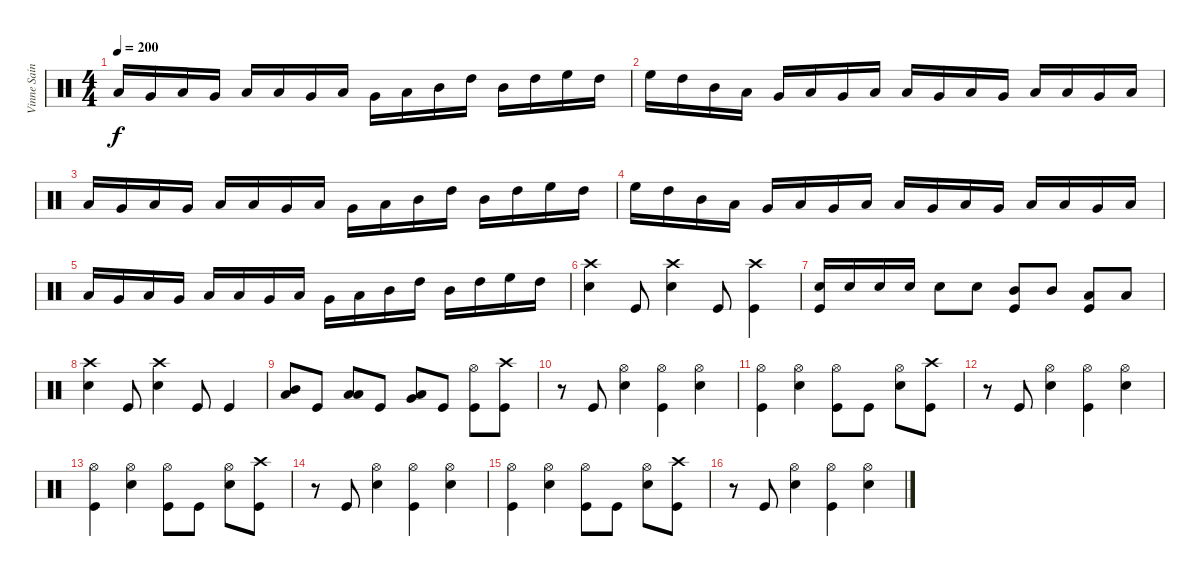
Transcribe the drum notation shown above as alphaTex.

\track ("Vinne Saint James" "Vinne Sain") {instrument percussion}
\staff {score}
\articulation defaults
\ts (4 4)
\tempo 200
\clef neutral
\ks c "Low Tom (hit)".16{dy f} "Very Low Tom (hit)".16 "Low Floor Tom (hit)".16 "Very Low Tom (hit)".16 "Low Floor Tom (hit)".16 "Low Tom (hit)".16 "Very Low Tom (hit)".16 "Low Floor Tom (hit)".16 "Very Low Tom (hit)".16 "Low Tom (hit)".16 "Mid Tom (hit)".16 "High Tom (hit)".16 "Mid Tom (hit)".16 "High Tom (hit)".16 "High Floor Tom (hit)".16 "High Tom (hit)".16
|
"High Floor Tom (hit)".16 "High Tom (hit)".16 "Mid Tom (hit)".16 "Low Tom (hit)".16 "Very Low Tom (hit)".16 "Low Floor Tom (hit)".16 "Very Low Tom (hit)".16 "Low Floor Tom (hit)".16 "Low Tom (hit)".16 "Very Low Tom (hit)".16 "Low Floor Tom (hit)".16 "Very Low Tom (hit)".16 "Low Floor Tom (hit)".16 "Low Tom (hit)".16 "Very Low Tom (hit)".16 "Low Floor Tom (hit)".16 |
"Low Tom (hit)".16 "Very Low Tom (hit)".16 "Low Floor Tom (hit)".16 "Very Low Tom (hit)".16 "Low Floor Tom (hit)".16 "Low Tom (hit)".16 "Very Low Tom (hit)".16 "Low Floor Tom (hit)".16 "Very Low Tom (hit)".16 "Low Tom (hit)".16 "Mid Tom (hit)".16 "High Tom (hit)".16 "Mid Tom (hit)".16 "High Tom (hit)".16 "High Floor Tom (hit)".16 "High Tom (hit)".16 |
"High Floor Tom (hit)".16 "High Tom (hit)".16 "Mid Tom (hit)".16 "Low Tom (hit)".16 "Very Low Tom (hit)".16 "Low Floor Tom (hit)".16 "Very Low Tom (hit)".16 "Low Floor Tom (hit)".16 "Low Tom (hit)".16 "Very Low Tom (hit)".16 "Low Floor Tom (hit)".16 "Very Low Tom (hit)".16 "Low Floor Tom (hit)".16 "Low Tom (hit)".16 "Very Low Tom (hit)".16 "Low Floor Tom (hit)".16 |
"Low Tom (hit)".16 "Very Low Tom (hit)".16 "Low Floor Tom (hit)".16 "Very Low Tom (hit)".16 "Low Floor Tom (hit)".16 "Low Tom (hit)".16 "Very Low Tom (hit)".16 "Low Floor Tom (hit)".16 "Very Low Tom (hit)".16 "Low Tom (hit)".16 "Mid Tom (hit)".16 "High Tom (hit)".16 "Mid Tom (hit)".16 "High Tom (hit)".16 "High Floor Tom (hit)".16 "High Tom (hit)".16 |
("Crash high (hit)" "Electric Snare (hit)").4 "Kick (hit)".8 ("Crash high (hit)" "Electric Snare (hit)").4 "Kick (hit)".8 ("Crash high (hit)" "Kick (hit)").4 |
("Electric Snare (hit)" "Kick (hit)").16 "Electric Snare (hit)".16 "Electric Snare (hit)".16 "Electric Snare (hit)".16 "Electric Snare (hit)".8 "Electric Snare (hit)".8 ("Mid Tom (hit)" "Kick (hit)").8 "Mid Tom (hit)".8 ("Low Tom (hit)" "Kick (hit)").8 "Low Tom (hit)".8 |
("Crash high (hit)" "Electric Snare (hit)").4 "Kick (hit)".8 ("Crash high (hit)" "Electric Snare (hit)").4 "Kick (hit)".8 "Kick (hit)".4 |
("Mid Tom (hit)" "Low Tom (hit)").8 "Kick (hit)".8 ("Low Tom (hit)" "Low Tom (hit)").8 "Kick (hit)".8 ("Very Low Tom (hit)" "Low Floor Tom (hit)").8 "Kick (hit)".8 ("Hi-Hat (open)" "Kick (hit)").8 ("Crash high (hit)" "Kick (hit)").8 |
r.8 "Kick (hit)".8 ("Hi-Hat (open)" "Electric Snare (hit)").4 ("Hi-Hat (open)" "Kick (hit)").4 ("Hi-Hat (open)" "Electric Snare (hit)").4 |
("Hi-Hat (open)" "Kick (hit)").4 ("Hi-Hat (open)" "Electric Snare (hit)").4 ("Hi-Hat (open)" "Kick (hit)").8 "Kick (hit)".8 ("Hi-Hat (open)" "Electric Snare (hit)").8 ("Crash high (hit)" "Kick (hit)").8 |
r.8 "Kick (hit)".8 ("Hi-Hat (open)" "Electric Snare (hit)").4 ("Hi-Hat (open)" "Kick (hit)").4 ("Hi-Hat (open)" "Electric Snare (hit)").4 |
("Hi-Hat (open)" "Kick (hit)").4 ("Hi-Hat (open)" "Electric Snare (hit)").4 ("Hi-Hat (open)" "Kick (hit)").8 "Kick (hit)".8 ("Hi-Hat (open)" "Electric Snare (hit)").8 ("Crash high (hit)" "Kick (hit)").8 |
r.8 "Kick (hit)".8 ("Hi-Hat (open)" "Electric Snare (hit)").4 ("Hi-Hat (open)" "Kick (hit)").4 ("Hi-Hat (open)" "Electric Snare (hit)").4 |
("Hi-Hat (open)" "Kick (hit)").4 ("Hi-Hat (open)" "Electric Snare (hit)").4 ("Hi-Hat (open)" "Kick (hit)").8 "Kick (hit)".8 ("Hi-Hat (open)" "Electric Snare (hit)").8 ("Crash high (hit)" "Kick (hit)").8 |
r.8 "Kick (hit)".8 ("Hi-Hat (open)" "Electric Snare (hit)").4 ("Hi-Hat (open)" "Kick (hit)").4 ("Hi-Hat (open)" "Electric Snare (hit)").4
